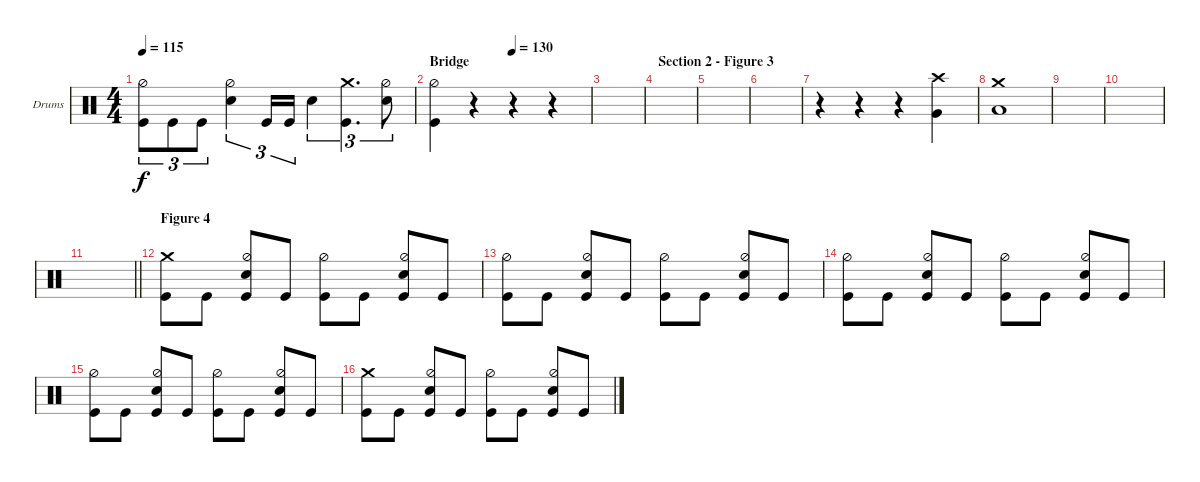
\defaultSystemsLayout 4
\bracketExtendMode groupsimilarinstruments
\firstSystemTrackNameOrientation horizontal
\otherSystemsTrackNameOrientation horizontal
\track ("Drums" "Drums") {instrument percussion}
\staff {score}
\articulation defaults
\ts (4 4)
\tempo 115
\clef neutral
\ks aminor
("Kick (hit)" "Hi-Hat (half)").8{tu (3 2) dy f} "Kick (hit)".8{tu (3 2)} "Kick (hit)".8{tu (3 2)} ("Snare (hit) 2" "Hi-Hat (half)").4{tu (3 2)} "Kick (hit)".16{tu (3 2)} "Kick (hit)".16{tu (3 2)} "Snare (hit) 2".4{tu (3 2)} ("Crash medium (hit)" "Kick (hit)").4{d tu (3 2)} ("Hi-Hat (half)" "Snare (hit) 2").8{tu (3 2)} |
\section ("" "Bridge")
\tempo (130 0.5)
("Kick (hit)" "Hi-Hat (half)").4 r.4 r.4 r.4 |
|
\section ("" "Section 2 - Figure 3")
|
|
|
r.4 r.4 r.4 ("Very Low Tom (hit)" "Crash high (hit)").4 |
("Crash medium (hit)" "Low Tom (hit)").1 |
|
|
\barLineRight lightlight
|
\section ("" "Figure 4")
("Kick (hit)" "Crash medium (hit)").8 "Kick (hit)".8 ("Snare (hit) 2" "Hi-Hat (half)" "Kick (hit)").8 "Kick (hit)".8 ("Kick (hit)" "Hi-Hat (half)").8 "Kick (hit)".8 ("Snare (hit) 2" "Hi-Hat (half)" "Kick (hit)").8 "Kick (hit)".8 |
("Kick (hit)" "Hi-Hat (half)").8 "Kick (hit)".8 ("Snare (hit) 2" "Hi-Hat (half)" "Kick (hit)").8 "Kick (hit)".8 ("Kick (hit)" "Hi-Hat (half)").8 "Kick (hit)".8 ("Snare (hit) 2" "Hi-Hat (half)" "Kick (hit)").8 "Kick (hit)".8 |
("Kick (hit)" "Hi-Hat (half)").8 "Kick (hit)".8 ("Snare (hit) 2" "Hi-Hat (half)" "Kick (hit)").8 "Kick (hit)".8 ("Kick (hit)" "Hi-Hat (half)").8 "Kick (hit)".8 ("Snare (hit) 2" "Hi-Hat (half)" "Kick (hit)").8 "Kick (hit)".8 |
("Kick (hit)" "Hi-Hat (half)").8 "Kick (hit)".8 ("Snare (hit) 2" "Hi-Hat (half)" "Kick (hit)").8 "Kick (hit)".8 ("Kick (hit)" "Hi-Hat (half)").8 "Kick (hit)".8 ("Snare (hit) 2" "Hi-Hat (half)" "Kick (hit)").8 "Kick (hit)".8 |
("Kick (hit)" "Crash medium (hit)").8 "Kick (hit)".8 ("Snare (hit) 2" "Hi-Hat (half)" "Kick (hit)").8 "Kick (hit)".8 ("Kick (hit)" "Hi-Hat (half)").8 "Kick (hit)".8 ("Snare (hit) 2" "Hi-Hat (half)" "Kick (hit)").8 "Kick (hit)".8
